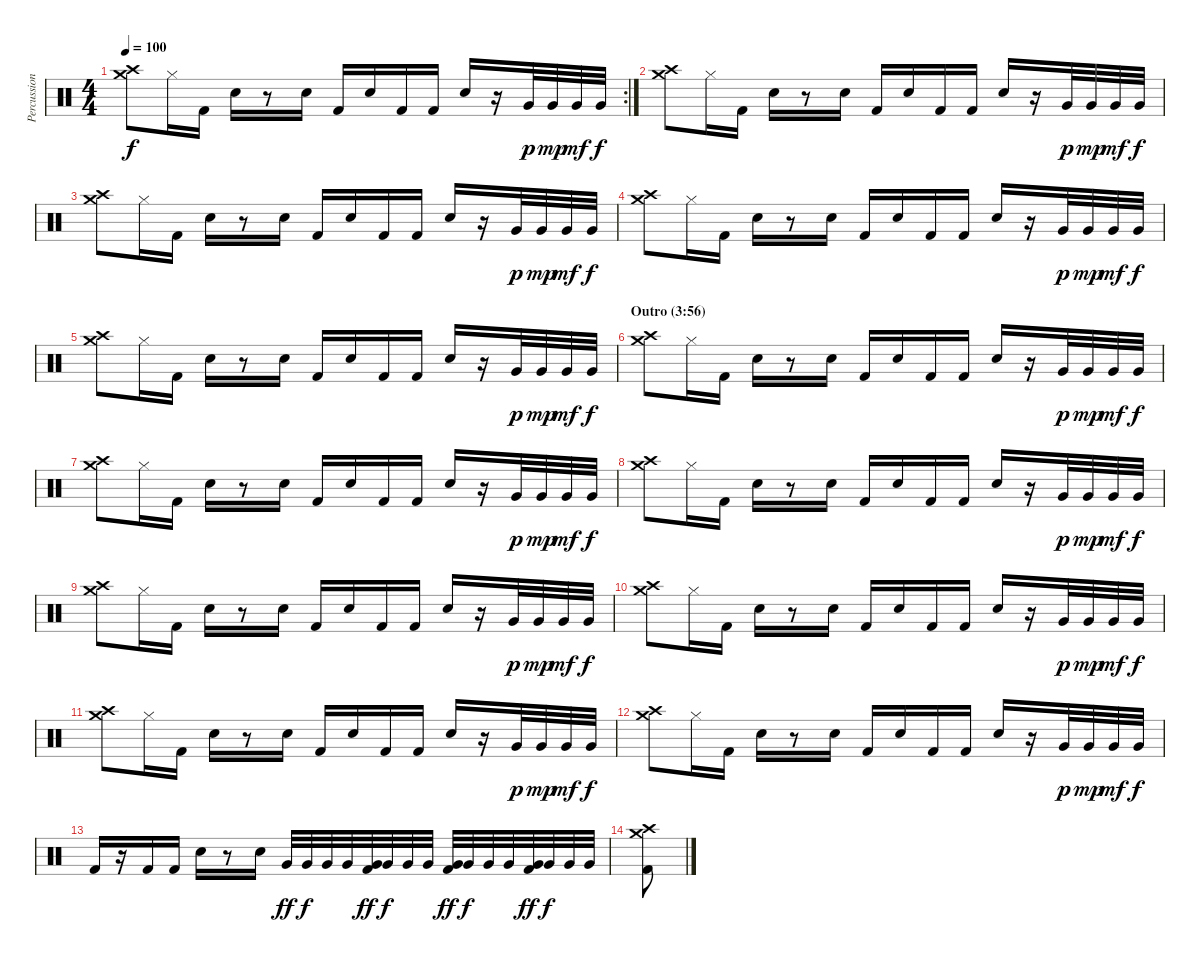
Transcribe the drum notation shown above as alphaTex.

\track ("Percussion (Matt)" "Percussion") {instrument percussion}
\staff {score}
\articulation defaults
\rc 2
\ts (4 4)
\tempo 100
\clef neutral
\ks c
("Crash high (hit)" "Crash medium (hit)").8{dy f} "Hi-Hat (closed)".16 "Kick (hit) 2".16 "Snare (hit) 2".16 r.8 "Snare (hit) 2".16 "Kick (hit) 2".16 "Snare (hit) 2".16 "Kick (hit) 2".16 "Kick (hit) 2".16 "Snare (hit) 2".16 r.16 "Very Low Tom (hit)".32{dy p} "Very Low Tom (hit)".32{dy mp} "Very Low Tom (hit)".32{dy mf} "Very Low Tom (hit)".32{dy f} |
("Crash high (hit)" "Crash medium (hit)").8 "Hi-Hat (closed)".16 "Kick (hit) 2".16 "Snare (hit) 2".16 r.8 "Snare (hit) 2".16 "Kick (hit) 2".16 "Snare (hit) 2".16 "Kick (hit) 2".16 "Kick (hit) 2".16 "Snare (hit) 2".16 r.16 "Very Low Tom (hit)".32{dy p} "Very Low Tom (hit)".32{dy mp} "Very Low Tom (hit)".32{dy mf} "Very Low Tom (hit)".32{dy f} |
("Crash high (hit)" "Crash medium (hit)").8 "Hi-Hat (closed)".16 "Kick (hit) 2".16 "Snare (hit) 2".16 r.8 "Snare (hit) 2".16 "Kick (hit) 2".16 "Snare (hit) 2".16 "Kick (hit) 2".16 "Kick (hit) 2".16 "Snare (hit) 2".16 r.16 "Very Low Tom (hit)".32{dy p} "Very Low Tom (hit)".32{dy mp} "Very Low Tom (hit)".32{dy mf} "Very Low Tom (hit)".32{dy f} |
("Crash high (hit)" "Crash medium (hit)").8 "Hi-Hat (closed)".16 "Kick (hit) 2".16 "Snare (hit) 2".16 r.8 "Snare (hit) 2".16 "Kick (hit) 2".16 "Snare (hit) 2".16 "Kick (hit) 2".16 "Kick (hit) 2".16 "Snare (hit) 2".16 r.16 "Very Low Tom (hit)".32{dy p} "Very Low Tom (hit)".32{dy mp} "Very Low Tom (hit)".32{dy mf} "Very Low Tom (hit)".32{dy f} |
("Crash high (hit)" "Crash medium (hit)").8 "Hi-Hat (closed)".16 "Kick (hit) 2".16 "Snare (hit) 2".16 r.8 "Snare (hit) 2".16 "Kick (hit) 2".16 "Snare (hit) 2".16 "Kick (hit) 2".16 "Kick (hit) 2".16 "Snare (hit) 2".16 r.16 "Very Low Tom (hit)".32{dy p} "Very Low Tom (hit)".32{dy mp} "Very Low Tom (hit)".32{dy mf} "Very Low Tom (hit)".32{dy f} |
\section ("" "Outro (3:56)")
("Crash high (hit)" "Crash medium (hit)").8 "Hi-Hat (closed)".16 "Kick (hit) 2".16 "Snare (hit) 2".16 r.8 "Snare (hit) 2".16 "Kick (hit) 2".16 "Snare (hit) 2".16 "Kick (hit) 2".16 "Kick (hit) 2".16 "Snare (hit) 2".16 r.16 "Very Low Tom (hit)".32{dy p} "Very Low Tom (hit)".32{dy mp} "Very Low Tom (hit)".32{dy mf} "Very Low Tom (hit)".32{dy f} |
("Crash high (hit)" "Crash medium (hit)").8 "Hi-Hat (closed)".16 "Kick (hit) 2".16 "Snare (hit) 2".16 r.8 "Snare (hit) 2".16 "Kick (hit) 2".16 "Snare (hit) 2".16 "Kick (hit) 2".16 "Kick (hit) 2".16 "Snare (hit) 2".16 r.16 "Very Low Tom (hit)".32{dy p} "Very Low Tom (hit)".32{dy mp} "Very Low Tom (hit)".32{dy mf} "Very Low Tom (hit)".32{dy f} |
("Crash high (hit)" "Crash medium (hit)").8 "Hi-Hat (closed)".16 "Kick (hit) 2".16 "Snare (hit) 2".16 r.8 "Snare (hit) 2".16 "Kick (hit) 2".16 "Snare (hit) 2".16 "Kick (hit) 2".16 "Kick (hit) 2".16 "Snare (hit) 2".16 r.16 "Very Low Tom (hit)".32{dy p} "Very Low Tom (hit)".32{dy mp} "Very Low Tom (hit)".32{dy mf} "Very Low Tom (hit)".32{dy f} |
("Crash high (hit)" "Crash medium (hit)").8 "Hi-Hat (closed)".16 "Kick (hit) 2".16 "Snare (hit) 2".16 r.8 "Snare (hit) 2".16 "Kick (hit) 2".16 "Snare (hit) 2".16 "Kick (hit) 2".16 "Kick (hit) 2".16 "Snare (hit) 2".16 r.16 "Very Low Tom (hit)".32{dy p} "Very Low Tom (hit)".32{dy mp} "Very Low Tom (hit)".32{dy mf} "Very Low Tom (hit)".32{dy f} |
("Crash high (hit)" "Crash medium (hit)").8 "Hi-Hat (closed)".16 "Kick (hit) 2".16 "Snare (hit) 2".16 r.8 "Snare (hit) 2".16 "Kick (hit) 2".16 "Snare (hit) 2".16 "Kick (hit) 2".16 "Kick (hit) 2".16 "Snare (hit) 2".16 r.16 "Very Low Tom (hit)".32{dy p} "Very Low Tom (hit)".32{dy mp} "Very Low Tom (hit)".32{dy mf} "Very Low Tom (hit)".32{dy f} |
("Crash high (hit)" "Crash medium (hit)").8 "Hi-Hat (closed)".16 "Kick (hit) 2".16 "Snare (hit) 2".16 r.8 "Snare (hit) 2".16 "Kick (hit) 2".16 "Snare (hit) 2".16 "Kick (hit) 2".16 "Kick (hit) 2".16 "Snare (hit) 2".16 r.16 "Very Low Tom (hit)".32{dy p} "Very Low Tom (hit)".32{dy mp} "Very Low Tom (hit)".32{dy mf} "Very Low Tom (hit)".32{dy f} |
("Crash high (hit)" "Crash medium (hit)").8 "Hi-Hat (closed)".16 "Kick (hit) 2".16 "Snare (hit) 2".16 r.8 "Snare (hit) 2".16 "Kick (hit) 2".16 "Snare (hit) 2".16 "Kick (hit) 2".16 "Kick (hit) 2".16 "Snare (hit) 2".16 r.16 "Very Low Tom (hit)".32{dy p} "Very Low Tom (hit)".32{dy mp} "Very Low Tom (hit)".32{dy mf} "Very Low Tom (hit)".32{dy f} |
"Kick (hit) 2".16 r.16 "Kick (hit) 2".16 "Kick (hit) 2".16 "Snare (hit) 2".16 r.8 "Snare (hit) 2".16 "Very Low Tom (hit)".32{dy ff} "Very Low Tom (hit)".32{dy f} "Very Low Tom (hit)".32 "Very Low Tom (hit)".32 ("Very Low Tom (hit)" "Kick (hit) 2").32{dy ff} "Very Low Tom (hit)".32{dy f} "Very Low Tom (hit)".32 "Very Low Tom (hit)".32 ("Very Low Tom (hit)" "Kick (hit) 2").32{dy ff} "Very Low Tom (hit)".32{dy f} "Very Low Tom (hit)".32 "Very Low Tom (hit)".32 ("Very Low Tom (hit)" "Kick (hit) 2").32{dy ff} "Very Low Tom (hit)".32{dy f} "Very Low Tom (hit)".32 "Very Low Tom (hit)".32 |
("Crash high (hit)" "Crash medium (hit)" "Kick (hit) 2").8
